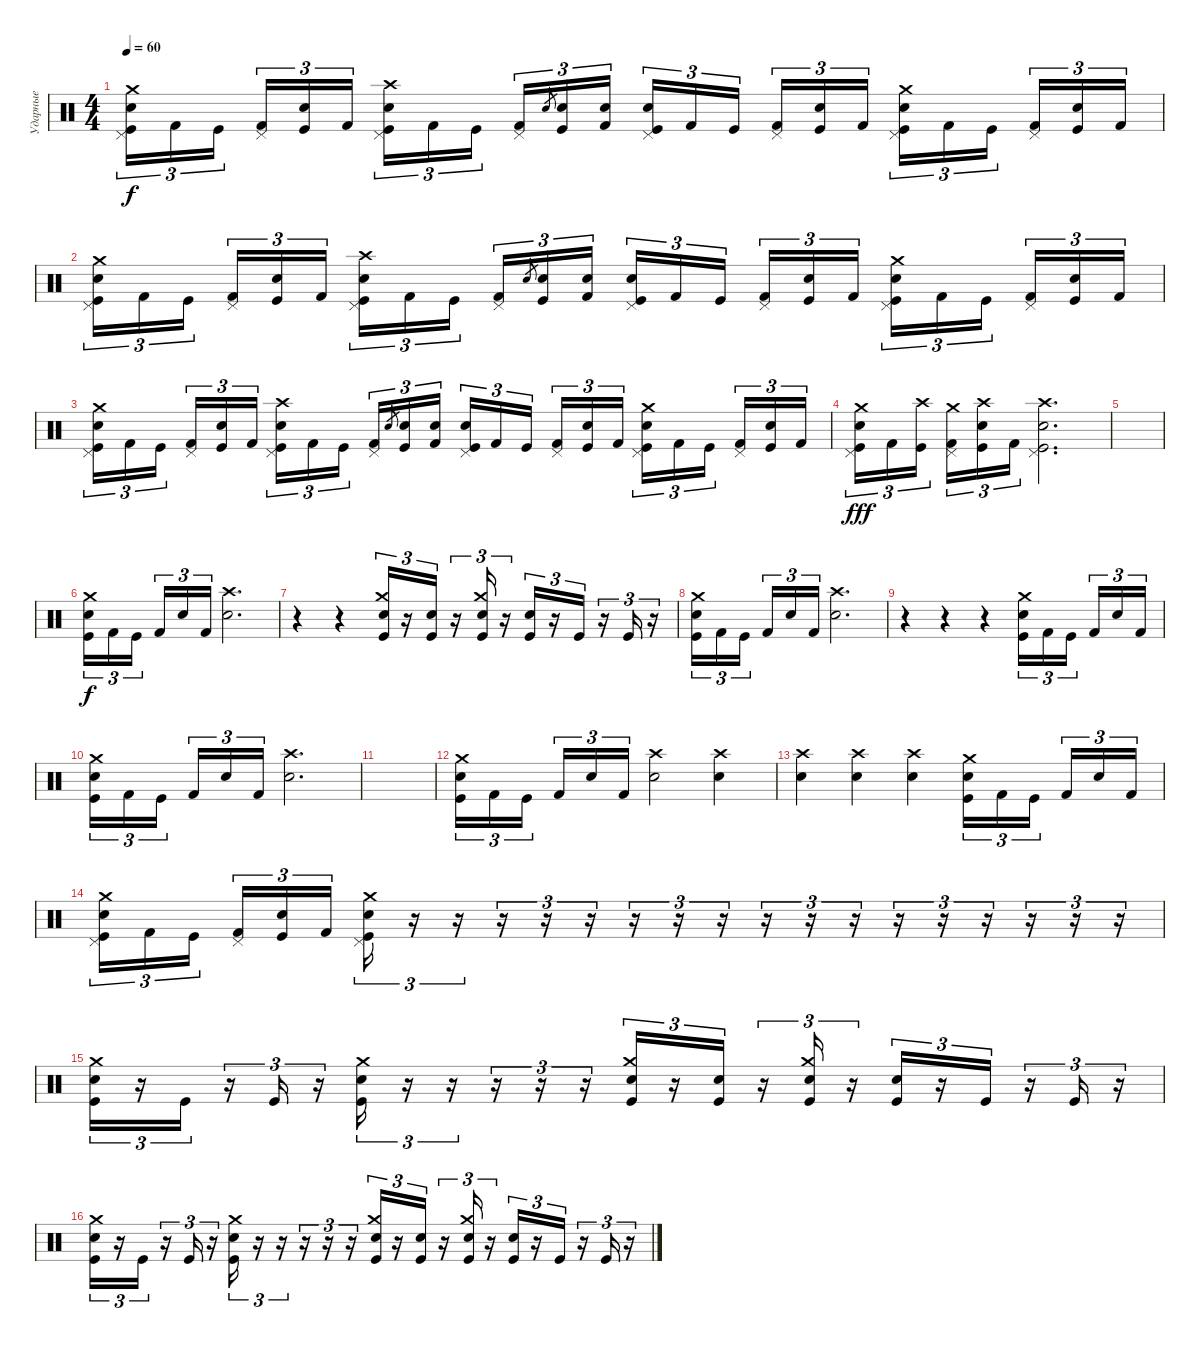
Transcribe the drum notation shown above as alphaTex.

\track ("Ударные" "Ударные") {instrument percussion}
\staff {score}
\articulation defaults
\ts (4 4)
\tempo 60
\clef neutral
\ks c
("Snare (hit) 2" "Kick (hit)" "Pedal Hi-Hat (hit)" "Crash medium (hit)").16{tu (3 2) dy f} "Kick (hit) 2".16{tu (3 2)} "Kick (hit)".16{tu (3 2) beam splitsecondary} ("Kick (hit) 2" "Pedal Hi-Hat (hit)").16{tu (3 2)} ("Snare (hit) 2" "Kick (hit)").16{tu (3 2)} "Kick (hit) 2".16{tu (3 2)} ("Snare (hit) 2" "Kick (hit)" "Pedal Hi-Hat (hit)" "Crash high (hit)").16{tu (3 2)} "Kick (hit) 2".16{tu (3 2)} "Kick (hit)".16{tu (3 2) beam splitsecondary} ("Kick (hit) 2" "Pedal Hi-Hat (hit)").16{tu (3 2)} "Electric Snare (hit)".8{gr} ("Electric Snare (hit)" "Kick (hit)").16{tu (3 2)} ("Electric Snare (hit)" "Kick (hit) 2").16{tu (3 2)} ("Snare (hit) 2" "Kick (hit)" "Pedal Hi-Hat (hit)").16{tu (3 2)} "Kick (hit) 2".16{tu (3 2)} "Kick (hit)".16{tu (3 2) beam splitsecondary} ("Kick (hit) 2" "Pedal Hi-Hat (hit)").16{tu (3 2)} ("Snare (hit) 2" "Kick (hit)").16{tu (3 2)} "Kick (hit) 2".16{tu (3 2)} ("Snare (hit) 2" "Kick (hit)" "Pedal Hi-Hat (hit)" "Crash medium (hit)").16{tu (3 2)} "Kick (hit) 2".16{tu (3 2)} "Kick (hit)".16{tu (3 2) beam splitsecondary} ("Kick (hit) 2" "Pedal Hi-Hat (hit)").16{tu (3 2)} ("Snare (hit) 2" "Kick (hit)").16{tu (3 2)} "Kick (hit) 2".16{tu (3 2)} |
("Snare (hit) 2" "Kick (hit)" "Pedal Hi-Hat (hit)" "Crash medium (hit)").16{tu (3 2)} "Kick (hit) 2".16{tu (3 2)} "Kick (hit)".16{tu (3 2) beam splitsecondary} ("Kick (hit) 2" "Pedal Hi-Hat (hit)").16{tu (3 2)} ("Snare (hit) 2" "Kick (hit)").16{tu (3 2)} "Kick (hit) 2".16{tu (3 2)} ("Snare (hit) 2" "Kick (hit)" "Pedal Hi-Hat (hit)" "Crash high (hit)").16{tu (3 2)} "Kick (hit) 2".16{tu (3 2)} "Kick (hit)".16{tu (3 2) beam splitsecondary} ("Kick (hit) 2" "Pedal Hi-Hat (hit)").16{tu (3 2)} "Electric Snare (hit)".8{gr} ("Electric Snare (hit)" "Kick (hit)").16{tu (3 2)} ("Electric Snare (hit)" "Kick (hit) 2").16{tu (3 2)} ("Snare (hit) 2" "Kick (hit)" "Pedal Hi-Hat (hit)").16{tu (3 2)} "Kick (hit) 2".16{tu (3 2)} "Kick (hit)".16{tu (3 2) beam splitsecondary} ("Kick (hit) 2" "Pedal Hi-Hat (hit)").16{tu (3 2)} ("Snare (hit) 2" "Kick (hit)").16{tu (3 2)} "Kick (hit) 2".16{tu (3 2)} ("Snare (hit) 2" "Kick (hit)" "Pedal Hi-Hat (hit)" "Crash medium (hit)").16{tu (3 2)} "Kick (hit) 2".16{tu (3 2)} "Kick (hit)".16{tu (3 2) beam splitsecondary} ("Kick (hit) 2" "Pedal Hi-Hat (hit)").16{tu (3 2)} ("Snare (hit) 2" "Kick (hit)").16{tu (3 2)} "Kick (hit) 2".16{tu (3 2)} |
("Snare (hit) 2" "Kick (hit)" "Pedal Hi-Hat (hit)" "Crash medium (hit)").16{tu (3 2)} "Kick (hit) 2".16{tu (3 2)} "Kick (hit)".16{tu (3 2) beam splitsecondary} ("Kick (hit) 2" "Pedal Hi-Hat (hit)").16{tu (3 2)} ("Snare (hit) 2" "Kick (hit)").16{tu (3 2)} "Kick (hit) 2".16{tu (3 2)} ("Snare (hit) 2" "Kick (hit)" "Pedal Hi-Hat (hit)" "Crash high (hit)").16{tu (3 2)} "Kick (hit) 2".16{tu (3 2)} "Kick (hit)".16{tu (3 2) beam splitsecondary} ("Kick (hit) 2" "Pedal Hi-Hat (hit)").16{tu (3 2)} "Electric Snare (hit)".8{gr} ("Electric Snare (hit)" "Kick (hit)").16{tu (3 2)} ("Electric Snare (hit)" "Kick (hit) 2").16{tu (3 2)} ("Snare (hit) 2" "Kick (hit)" "Pedal Hi-Hat (hit)").16{tu (3 2)} "Kick (hit) 2".16{tu (3 2)} "Kick (hit)".16{tu (3 2) beam splitsecondary} ("Kick (hit) 2" "Pedal Hi-Hat (hit)").16{tu (3 2)} ("Snare (hit) 2" "Kick (hit)").16{tu (3 2)} "Kick (hit) 2".16{tu (3 2)} ("Snare (hit) 2" "Kick (hit)" "Pedal Hi-Hat (hit)" "Crash medium (hit)").16{tu (3 2)} "Kick (hit) 2".16{tu (3 2)} "Kick (hit)".16{tu (3 2) beam splitsecondary} ("Kick (hit) 2" "Pedal Hi-Hat (hit)").16{tu (3 2)} ("Snare (hit) 2" "Kick (hit)").16{tu (3 2)} "Kick (hit) 2".16{tu (3 2)} |
("Snare (hit) 2" "Kick (hit)" "Pedal Hi-Hat (hit)" "Crash medium (hit)").16{tu (3 2) dy fff} "Kick (hit) 2".16{tu (3 2)} ("Kick (hit)" "Crash high (hit)").16{tu (3 2) beam splitsecondary} ("Kick (hit) 2" "Pedal Hi-Hat (hit)" "Crash medium (hit)").16{tu (3 2)} ("Snare (hit) 2" "Kick (hit)" "Crash high (hit)").16{tu (3 2)} "Kick (hit) 2".16{tu (3 2)} ("Snare (hit) 2" "Kick (hit)" "Pedal Hi-Hat (hit)" "Crash high (hit)").2{d} |
|
("Snare (hit) 2" "Kick (hit)" "Crash medium (hit)").16{tu (3 2) dy f} "Kick (hit) 2".16{tu (3 2)} "Kick (hit)".16{tu (3 2) beam splitsecondary} "Kick (hit) 2".16{tu (3 2)} "Snare (hit) 2".16{tu (3 2)} "Kick (hit) 2".16{tu (3 2)} ("Snare (hit) 2" "Crash high (hit)").2{d} |
r.4 r.4 ("Electric Snare (hit)" "Kick (hit)" "Crash medium (hit)").16{tu (3 2)} r.16{tu (3 2)} ("Snare (hit) 2" "Kick (hit)").16{tu (3 2)} r.16{tu (3 2)} ("Electric Snare (hit)" "Kick (hit)" "Crash medium (hit)").16{tu (3 2)} r.16{tu (3 2)} ("Snare (hit) 2" "Kick (hit)").16{tu (3 2)} r.16{tu (3 2)} "Kick (hit)".16{tu (3 2)} r.16{tu (3 2)} "Kick (hit)".16{tu (3 2)} r.16{tu (3 2)} |
("Snare (hit) 2" "Kick (hit)" "Crash medium (hit)").16{tu (3 2)} "Kick (hit) 2".16{tu (3 2)} "Kick (hit)".16{tu (3 2) beam splitsecondary} "Kick (hit) 2".16{tu (3 2)} "Snare (hit) 2".16{tu (3 2)} "Kick (hit) 2".16{tu (3 2)} ("Snare (hit) 2" "Crash high (hit)").2{d} |
r.4 r.4 r.4 ("Snare (hit) 2" "Kick (hit)" "Crash medium (hit)").16{tu (3 2)} "Kick (hit) 2".16{tu (3 2)} "Kick (hit)".16{tu (3 2) beam splitsecondary} "Kick (hit) 2".16{tu (3 2)} "Snare (hit) 2".16{tu (3 2)} "Kick (hit) 2".16{tu (3 2)} |
("Snare (hit) 2" "Kick (hit)" "Crash medium (hit)").16{tu (3 2)} "Kick (hit) 2".16{tu (3 2)} "Kick (hit)".16{tu (3 2) beam splitsecondary} "Kick (hit) 2".16{tu (3 2)} "Snare (hit) 2".16{tu (3 2)} "Kick (hit) 2".16{tu (3 2)} ("Snare (hit) 2" "Crash high (hit)").2{d} |
|
("Snare (hit) 2" "Kick (hit)" "Crash medium (hit)").16{tu (3 2)} "Kick (hit) 2".16{tu (3 2)} "Kick (hit)".16{tu (3 2) beam splitsecondary} "Kick (hit) 2".16{tu (3 2)} "Snare (hit) 2".16{tu (3 2)} "Kick (hit) 2".16{tu (3 2)} ("Snare (hit) 2" "Crash high (hit)").2 ("Snare (hit) 2" "Crash high (hit)").4 |
("Snare (hit) 2" "Crash high (hit)").4 ("Snare (hit) 2" "Crash high (hit)").4 ("Snare (hit) 2" "Crash high (hit)").4 ("Snare (hit) 2" "Kick (hit)" "Crash medium (hit)").16{tu (3 2)} "Kick (hit) 2".16{tu (3 2)} "Kick (hit)".16{tu (3 2) beam splitsecondary} "Kick (hit) 2".16{tu (3 2)} "Snare (hit) 2".16{tu (3 2)} "Kick (hit) 2".16{tu (3 2)} |
("Snare (hit) 2" "Kick (hit)" "Pedal Hi-Hat (hit)" "Crash medium (hit)").16{tu (3 2)} "Kick (hit) 2".16{tu (3 2)} "Kick (hit)".16{tu (3 2) beam splitsecondary} ("Kick (hit) 2" "Pedal Hi-Hat (hit)").16{tu (3 2)} ("Snare (hit) 2" "Kick (hit)").16{tu (3 2)} "Kick (hit) 2".16{tu (3 2)} ("Snare (hit) 2" "Kick (hit)" "Pedal Hi-Hat (hit)" "Crash medium (hit)").16{tu (3 2)} r.16{tu (3 2)} r.16{tu (3 2)} r.16{tu (3 2)} r.16{tu (3 2)} r.16{tu (3 2)} r.16{tu (3 2)} r.16{tu (3 2)} r.16{tu (3 2)} r.16{tu (3 2)} r.16{tu (3 2)} r.16{tu (3 2)} r.16{tu (3 2)} r.16{tu (3 2)} r.16{tu (3 2)} r.16{tu (3 2)} r.16{tu (3 2)} r.16{tu (3 2)} |
("Snare (hit) 2" "Kick (hit)" "Crash medium (hit)").16{tu (3 2)} r.16{tu (3 2)} "Kick (hit)".16{tu (3 2)} r.16{tu (3 2)} "Kick (hit)".16{tu (3 2)} r.16{tu (3 2)} ("Snare (hit) 2" "Kick (hit)" "Crash medium (hit)").16{tu (3 2)} r.16{tu (3 2)} r.16{tu (3 2)} r.16{tu (3 2)} r.16{tu (3 2)} r.16{tu (3 2)} ("Electric Snare (hit)" "Kick (hit)" "Crash medium (hit)").16{tu (3 2)} r.16{tu (3 2)} ("Snare (hit) 2" "Kick (hit)").16{tu (3 2)} r.16{tu (3 2)} ("Electric Snare (hit)" "Kick (hit)" "Crash medium (hit)").16{tu (3 2)} r.16{tu (3 2)} ("Snare (hit) 2" "Kick (hit)").16{tu (3 2)} r.16{tu (3 2)} "Kick (hit)".16{tu (3 2)} r.16{tu (3 2)} "Kick (hit)".16{tu (3 2)} r.16{tu (3 2)} |
("Snare (hit) 2" "Kick (hit)" "Crash medium (hit)").16{tu (3 2)} r.16{tu (3 2)} "Kick (hit)".16{tu (3 2)} r.16{tu (3 2)} "Kick (hit)".16{tu (3 2)} r.16{tu (3 2)} ("Snare (hit) 2" "Kick (hit)" "Crash medium (hit)").16{tu (3 2)} r.16{tu (3 2)} r.16{tu (3 2)} r.16{tu (3 2)} r.16{tu (3 2)} r.16{tu (3 2)} ("Electric Snare (hit)" "Kick (hit)" "Crash medium (hit)").16{tu (3 2)} r.16{tu (3 2)} ("Snare (hit) 2" "Kick (hit)").16{tu (3 2)} r.16{tu (3 2)} ("Electric Snare (hit)" "Kick (hit)" "Crash medium (hit)").16{tu (3 2)} r.16{tu (3 2)} ("Snare (hit) 2" "Kick (hit)").16{tu (3 2)} r.16{tu (3 2)} "Kick (hit)".16{tu (3 2)} r.16{tu (3 2)} "Kick (hit)".16{tu (3 2)} r.16{tu (3 2)}
